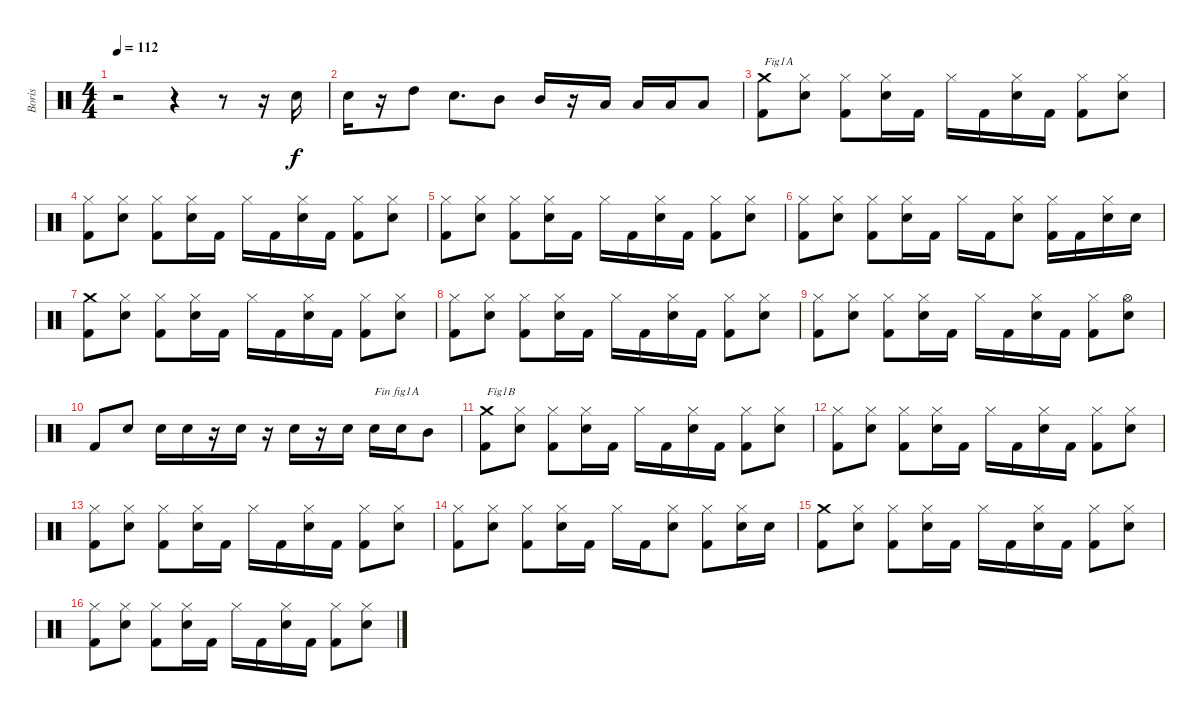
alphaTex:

\track ("Boris" "Boris") {instrument percussion}
\staff {score}
\articulation defaults
\ts (4 4)
\tempo 112
\clef neutral
\ks c
r.2{dy f} r.4 r.8 r.16 "Electric Snare (hit)".16 |
"Electric Snare (hit)".16 r.16 "High Tom (hit)".8 "Electric Snare (hit)".8{d} "Mid Tom (hit)".8 "Mid Tom (hit)".16 r.16 "Low Tom (hit)".16 "Low Tom (hit)".16 "Low Tom (hit)".16 "Low Tom (hit)".8 |
("Kick (hit) 2" "Crash medium (hit)").8{txt "Fig1A"} ("Electric Snare (hit)" "Hi-Hat (closed)").8 ("Kick (hit) 2" "Hi-Hat (closed)").8 ("Electric Snare (hit)" "Hi-Hat (closed)").16 "Kick (hit) 2".16 "Hi-Hat (closed)".16 "Kick (hit) 2".16 ("Electric Snare (hit)" "Hi-Hat (closed)").16 "Kick (hit) 2".16 ("Kick (hit) 2" "Hi-Hat (closed)").8 ("Electric Snare (hit)" "Hi-Hat (closed)").8 |
("Kick (hit) 2" "Hi-Hat (closed)").8 ("Electric Snare (hit)" "Hi-Hat (closed)").8 ("Kick (hit) 2" "Hi-Hat (closed)").8 ("Electric Snare (hit)" "Hi-Hat (closed)").16 "Kick (hit) 2".16 "Hi-Hat (closed)".16 "Kick (hit) 2".16 ("Electric Snare (hit)" "Hi-Hat (closed)").16 "Kick (hit) 2".16 ("Kick (hit) 2" "Hi-Hat (closed)").8 ("Electric Snare (hit)" "Hi-Hat (closed)").8 |
("Kick (hit) 2" "Hi-Hat (closed)").8 ("Electric Snare (hit)" "Hi-Hat (closed)").8 ("Kick (hit) 2" "Hi-Hat (closed)").8 ("Electric Snare (hit)" "Hi-Hat (closed)").16 "Kick (hit) 2".16 "Hi-Hat (closed)".16 "Kick (hit) 2".16 ("Electric Snare (hit)" "Hi-Hat (closed)").16 "Kick (hit) 2".16 ("Kick (hit) 2" "Hi-Hat (closed)").8 ("Electric Snare (hit)" "Hi-Hat (closed)").8 |
("Kick (hit) 2" "Hi-Hat (closed)").8 ("Electric Snare (hit)" "Hi-Hat (closed)").8 ("Kick (hit) 2" "Hi-Hat (closed)").8 ("Electric Snare (hit)" "Hi-Hat (closed)").16 "Kick (hit) 2".16 "Hi-Hat (closed)".16 "Kick (hit) 2".16 ("Electric Snare (hit)" "Hi-Hat (closed)").8 ("Kick (hit) 2" "Hi-Hat (closed)").16 "Kick (hit) 2".16 ("Electric Snare (hit)" "Hi-Hat (closed)").16 "Electric Snare (hit)".16 |
("Kick (hit) 2" "Crash medium (hit)").8 ("Electric Snare (hit)" "Hi-Hat (closed)").8 ("Kick (hit) 2" "Hi-Hat (closed)").8 ("Electric Snare (hit)" "Hi-Hat (closed)").16 "Kick (hit) 2".16 "Hi-Hat (closed)".16 "Kick (hit) 2".16 ("Electric Snare (hit)" "Hi-Hat (closed)").16 "Kick (hit) 2".16 ("Kick (hit) 2" "Hi-Hat (closed)").8 ("Electric Snare (hit)" "Hi-Hat (closed)").8 |
("Kick (hit) 2" "Hi-Hat (closed)").8 ("Electric Snare (hit)" "Hi-Hat (closed)").8 ("Kick (hit) 2" "Hi-Hat (closed)").8 ("Electric Snare (hit)" "Hi-Hat (closed)").16 "Kick (hit) 2".16 "Hi-Hat (closed)".16 "Kick (hit) 2".16 ("Electric Snare (hit)" "Hi-Hat (closed)").16 "Kick (hit) 2".16 ("Kick (hit) 2" "Hi-Hat (closed)").8 ("Electric Snare (hit)" "Hi-Hat (closed)").8 |
("Kick (hit) 2" "Hi-Hat (closed)").8 ("Electric Snare (hit)" "Hi-Hat (closed)").8 ("Kick (hit) 2" "Hi-Hat (closed)").8 ("Electric Snare (hit)" "Hi-Hat (closed)").16 "Kick (hit) 2".16 "Hi-Hat (closed)".16 "Kick (hit) 2".16 ("Electric Snare (hit)" "Hi-Hat (closed)").16 "Kick (hit) 2".16 ("Kick (hit) 2" "Hi-Hat (closed)").8 ("Electric Snare (hit)" "Hi-Hat (open)").8 |
"Kick (hit) 2".8 "Electric Snare (hit)".8 "Electric Snare (hit)".16 "Electric Snare (hit)".16 r.16 "Electric Snare (hit)".16 r.16 "Electric Snare (hit)".16 r.16 "Electric Snare (hit)".16 "Electric Snare (hit)".16{txt "Fin fig1A"} "Electric Snare (hit)".16 "Mid Tom (hit)".8 |
("Kick (hit) 2" "Crash medium (hit)").8{txt "Fig1B"} ("Electric Snare (hit)" "Hi-Hat (closed)").8 ("Kick (hit) 2" "Hi-Hat (closed)").8 ("Electric Snare (hit)" "Hi-Hat (closed)").16 "Kick (hit) 2".16 "Hi-Hat (closed)".16 "Kick (hit) 2".16 ("Electric Snare (hit)" "Hi-Hat (closed)").16 "Kick (hit) 2".16 ("Kick (hit) 2" "Hi-Hat (closed)").8 ("Electric Snare (hit)" "Hi-Hat (closed)").8 |
("Kick (hit) 2" "Hi-Hat (closed)").8 ("Electric Snare (hit)" "Hi-Hat (closed)").8 ("Kick (hit) 2" "Hi-Hat (closed)").8 ("Electric Snare (hit)" "Hi-Hat (closed)").16 "Kick (hit) 2".16 "Hi-Hat (closed)".16 "Kick (hit) 2".16 ("Electric Snare (hit)" "Hi-Hat (closed)").16 "Kick (hit) 2".16 ("Kick (hit) 2" "Hi-Hat (closed)").8 ("Electric Snare (hit)" "Hi-Hat (closed)").8 |
("Kick (hit) 2" "Hi-Hat (closed)").8 ("Electric Snare (hit)" "Hi-Hat (closed)").8 ("Kick (hit) 2" "Hi-Hat (closed)").8 ("Electric Snare (hit)" "Hi-Hat (closed)").16 "Kick (hit) 2".16 "Hi-Hat (closed)".16 "Kick (hit) 2".16 ("Electric Snare (hit)" "Hi-Hat (closed)").16 "Kick (hit) 2".16 ("Kick (hit) 2" "Hi-Hat (closed)").8 ("Electric Snare (hit)" "Hi-Hat (closed)").8 |
("Kick (hit) 2" "Hi-Hat (closed)").8 ("Electric Snare (hit)" "Hi-Hat (closed)").8 ("Kick (hit) 2" "Hi-Hat (closed)").8 ("Electric Snare (hit)" "Hi-Hat (closed)").16 "Kick (hit) 2".16 "Hi-Hat (closed)".16 "Kick (hit) 2".16 ("Electric Snare (hit)" "Hi-Hat (closed)").8 ("Kick (hit) 2" "Hi-Hat (closed)").8 ("Electric Snare (hit)" "Hi-Hat (closed)").16 "Electric Snare (hit)".16 |
("Kick (hit) 2" "Crash medium (hit)").8 ("Electric Snare (hit)" "Hi-Hat (closed)").8 ("Kick (hit) 2" "Hi-Hat (closed)").8 ("Electric Snare (hit)" "Hi-Hat (closed)").16 "Kick (hit) 2".16 "Hi-Hat (closed)".16 "Kick (hit) 2".16 ("Electric Snare (hit)" "Hi-Hat (closed)").16 "Kick (hit) 2".16 ("Kick (hit) 2" "Hi-Hat (closed)").8 ("Electric Snare (hit)" "Hi-Hat (closed)").8 |
("Kick (hit) 2" "Hi-Hat (closed)").8 ("Electric Snare (hit)" "Hi-Hat (closed)").8 ("Kick (hit) 2" "Hi-Hat (closed)").8 ("Electric Snare (hit)" "Hi-Hat (closed)").16 "Kick (hit) 2".16 "Hi-Hat (closed)".16 "Kick (hit) 2".16 ("Electric Snare (hit)" "Hi-Hat (closed)").16 "Kick (hit) 2".16 ("Kick (hit) 2" "Hi-Hat (closed)").8 ("Electric Snare (hit)" "Hi-Hat (closed)").8
